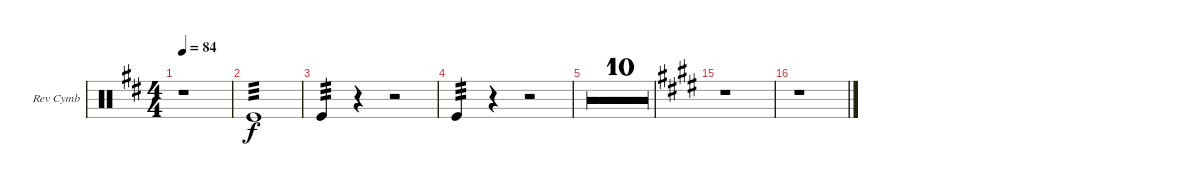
\defaultSystemsLayout 4
\bracketExtendMode groupsimilarinstruments
\firstSystemTrackNameOrientation horizontal
\otherSystemsTrackNameOrientation horizontal
\track ("Reverse Cymbal" "Rev Cymb") {multiBarRest instrument percussion}
\staff {score}
\articulation defaults
\ts (4 4)
\tempo 84
\clef neutral
\ks bminor
r.1{dy f} |
"Kick (hit)".1{tp 3} |
"Kick (hit)".4{tp 3} r.4 r.2 |
"Kick (hit)".4{tp 3} r.4 r.2 |
r.1 |
r.1 |
r.1 |
r.1 |
r.1 |
r.1 |
r.1 |
r.1 |
r.1 |
\barLineRight lightlight
r.1 |
\ks c#minor
r.1 |
r.1
